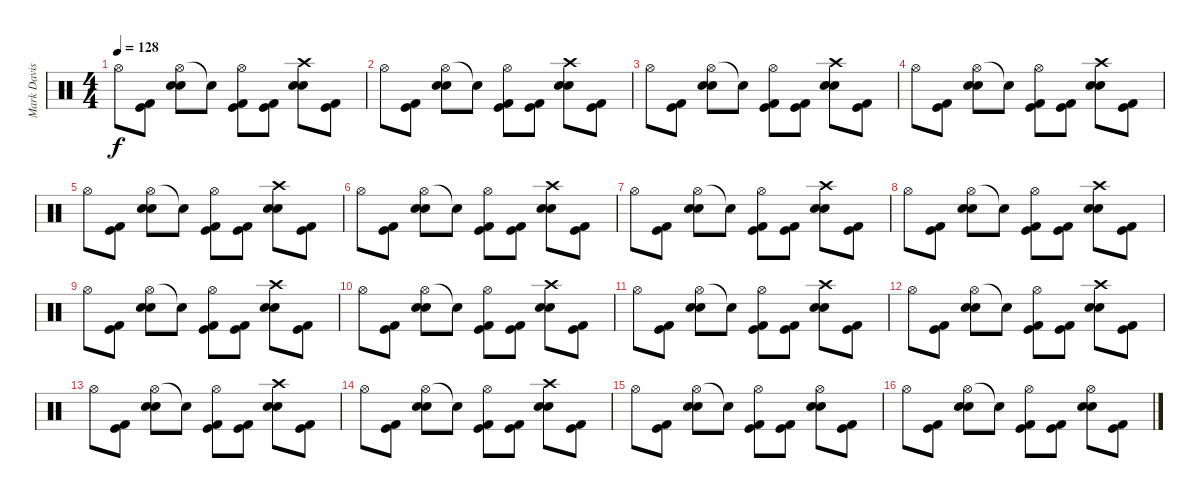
\track ("Mark Davis (drums)" "Mark Davis") {instrument percussion}
\staff {score}
\articulation defaults
\ts (4 4)
\tempo 128
\clef neutral
\ks c "Hi-Hat (open)".8{dy f}
("Kick (hit)" "Kick (hit) 2").8 ("Hi-Hat (open)" "Snare (hit) 2" "Electric Snare (hit)").8 "Snare (hit)"{t}.8 ("Hi-Hat (open)" "Kick (hit)" "Kick (hit) 2").8 ("Kick (hit)" "Kick (hit) 2").8 ("Crash high (hit)" "Snare (hit) 2" "Electric Snare (hit)").8 ("Kick (hit)" "Kick (hit) 2").8 |
"Hi-Hat (open)".8 ("Kick (hit)" "Kick (hit) 2").8 ("Hi-Hat (open)" "Snare (hit) 2" "Electric Snare (hit)").8 "Snare (hit)"{t}.8 ("Hi-Hat (open)" "Kick (hit)" "Kick (hit) 2").8 ("Kick (hit)" "Kick (hit) 2").8 ("Crash high (hit)" "Snare (hit) 2" "Electric Snare (hit)").8 ("Kick (hit)" "Kick (hit) 2").8 |
"Hi-Hat (open)".8 ("Kick (hit)" "Kick (hit) 2").8 ("Hi-Hat (open)" "Snare (hit) 2" "Electric Snare (hit)").8 "Snare (hit)"{t}.8 ("Hi-Hat (open)" "Kick (hit)" "Kick (hit) 2").8 ("Kick (hit)" "Kick (hit) 2").8 ("Crash high (hit)" "Snare (hit) 2" "Electric Snare (hit)").8 ("Kick (hit)" "Kick (hit) 2").8 |
"Hi-Hat (open)".8 ("Kick (hit)" "Kick (hit) 2").8 ("Hi-Hat (open)" "Snare (hit) 2" "Electric Snare (hit)").8 "Snare (hit)"{t}.8 ("Hi-Hat (open)" "Kick (hit)" "Kick (hit) 2").8 ("Kick (hit)" "Kick (hit) 2").8 ("Crash high (hit)" "Snare (hit) 2" "Electric Snare (hit)").8 ("Kick (hit)" "Kick (hit) 2").8 |
"Hi-Hat (open)".8 ("Kick (hit)" "Kick (hit) 2").8 ("Hi-Hat (open)" "Snare (hit) 2" "Electric Snare (hit)").8 "Snare (hit)"{t}.8 ("Hi-Hat (open)" "Kick (hit)" "Kick (hit) 2").8 ("Kick (hit)" "Kick (hit) 2").8 ("Crash high (hit)" "Snare (hit) 2" "Electric Snare (hit)").8 ("Kick (hit)" "Kick (hit) 2").8 |
"Hi-Hat (open)".8 ("Kick (hit)" "Kick (hit) 2").8 ("Hi-Hat (open)" "Snare (hit) 2" "Electric Snare (hit)").8 "Snare (hit)"{t}.8 ("Hi-Hat (open)" "Kick (hit)" "Kick (hit) 2").8 ("Kick (hit)" "Kick (hit) 2").8 ("Crash high (hit)" "Snare (hit) 2" "Electric Snare (hit)").8 ("Kick (hit)" "Kick (hit) 2").8 |
"Hi-Hat (open)".8 ("Kick (hit)" "Kick (hit) 2").8 ("Hi-Hat (open)" "Snare (hit) 2" "Electric Snare (hit)").8 "Snare (hit)"{t}.8 ("Hi-Hat (open)" "Kick (hit)" "Kick (hit) 2").8 ("Kick (hit)" "Kick (hit) 2").8 ("Crash high (hit)" "Snare (hit) 2" "Electric Snare (hit)").8 ("Kick (hit)" "Kick (hit) 2").8 |
"Hi-Hat (open)".8 ("Kick (hit)" "Kick (hit) 2").8 ("Hi-Hat (open)" "Snare (hit) 2" "Electric Snare (hit)").8 "Snare (hit)"{t}.8 ("Hi-Hat (open)" "Kick (hit)" "Kick (hit) 2").8 ("Kick (hit)" "Kick (hit) 2").8 ("Crash high (hit)" "Snare (hit) 2" "Electric Snare (hit)").8 ("Kick (hit)" "Kick (hit) 2").8 |
"Hi-Hat (open)".8 ("Kick (hit)" "Kick (hit) 2").8 ("Hi-Hat (open)" "Snare (hit) 2" "Electric Snare (hit)").8 "Snare (hit)"{t}.8 ("Hi-Hat (open)" "Kick (hit)" "Kick (hit) 2").8 ("Kick (hit)" "Kick (hit) 2").8 ("Crash high (hit)" "Snare (hit) 2" "Electric Snare (hit)").8 ("Kick (hit)" "Kick (hit) 2").8 |
"Hi-Hat (open)".8 ("Kick (hit)" "Kick (hit) 2").8 ("Hi-Hat (open)" "Snare (hit) 2" "Electric Snare (hit)").8 "Snare (hit)"{t}.8 ("Hi-Hat (open)" "Kick (hit)" "Kick (hit) 2").8 ("Kick (hit)" "Kick (hit) 2").8 ("Crash high (hit)" "Snare (hit) 2" "Electric Snare (hit)").8 ("Kick (hit)" "Kick (hit) 2").8 |
"Hi-Hat (open)".8 ("Kick (hit)" "Kick (hit) 2").8 ("Hi-Hat (open)" "Snare (hit) 2" "Electric Snare (hit)").8 "Snare (hit)"{t}.8 ("Hi-Hat (open)" "Kick (hit)" "Kick (hit) 2").8 ("Kick (hit)" "Kick (hit) 2").8 ("Crash high (hit)" "Snare (hit) 2" "Electric Snare (hit)").8 ("Kick (hit)" "Kick (hit) 2").8 |
"Hi-Hat (open)".8 ("Kick (hit)" "Kick (hit) 2").8 ("Hi-Hat (open)" "Snare (hit) 2" "Electric Snare (hit)").8 "Snare (hit)"{t}.8 ("Hi-Hat (open)" "Kick (hit)" "Kick (hit) 2").8 ("Kick (hit)" "Kick (hit) 2").8 ("Crash high (hit)" "Snare (hit) 2" "Electric Snare (hit)").8 ("Kick (hit)" "Kick (hit) 2").8 |
"Hi-Hat (open)".8 ("Kick (hit)" "Kick (hit) 2").8 ("Hi-Hat (open)" "Snare (hit) 2" "Electric Snare (hit)").8 "Snare (hit)"{t}.8 ("Hi-Hat (open)" "Kick (hit)" "Kick (hit) 2").8 ("Kick (hit)" "Kick (hit) 2").8 ("Crash high (hit)" "Snare (hit) 2" "Electric Snare (hit)").8 ("Kick (hit)" "Kick (hit) 2").8 |
"Hi-Hat (open)".8 ("Kick (hit)" "Kick (hit) 2").8 ("Hi-Hat (open)" "Snare (hit) 2" "Electric Snare (hit)").8 "Snare (hit)"{t}.8 ("Hi-Hat (open)" "Kick (hit)" "Kick (hit) 2").8 ("Kick (hit)" "Kick (hit) 2").8 ("Crash high (hit)" "Snare (hit) 2" "Electric Snare (hit)").8 ("Kick (hit)" "Kick (hit) 2").8 |
"Hi-Hat (open)".8 ("Kick (hit)" "Kick (hit) 2").8 ("Hi-Hat (open)" "Snare (hit) 2" "Electric Snare (hit)").8 "Snare (hit)"{t}.8 ("Hi-Hat (open)" "Kick (hit)" "Kick (hit) 2").8 ("Kick (hit)" "Kick (hit) 2").8 ("Hi-Hat (open)" "Snare (hit) 2" "Electric Snare (hit)").8 ("Kick (hit)" "Kick (hit) 2").8 |
"Hi-Hat (open)".8 ("Kick (hit)" "Kick (hit) 2").8 ("Hi-Hat (open)" "Snare (hit) 2" "Electric Snare (hit)").8 "Snare (hit)"{t}.8 ("Hi-Hat (open)" "Kick (hit)" "Kick (hit) 2").8 ("Kick (hit)" "Kick (hit) 2").8 ("Hi-Hat (open)" "Snare (hit) 2" "Electric Snare (hit)").8 ("Kick (hit)" "Kick (hit) 2").8
